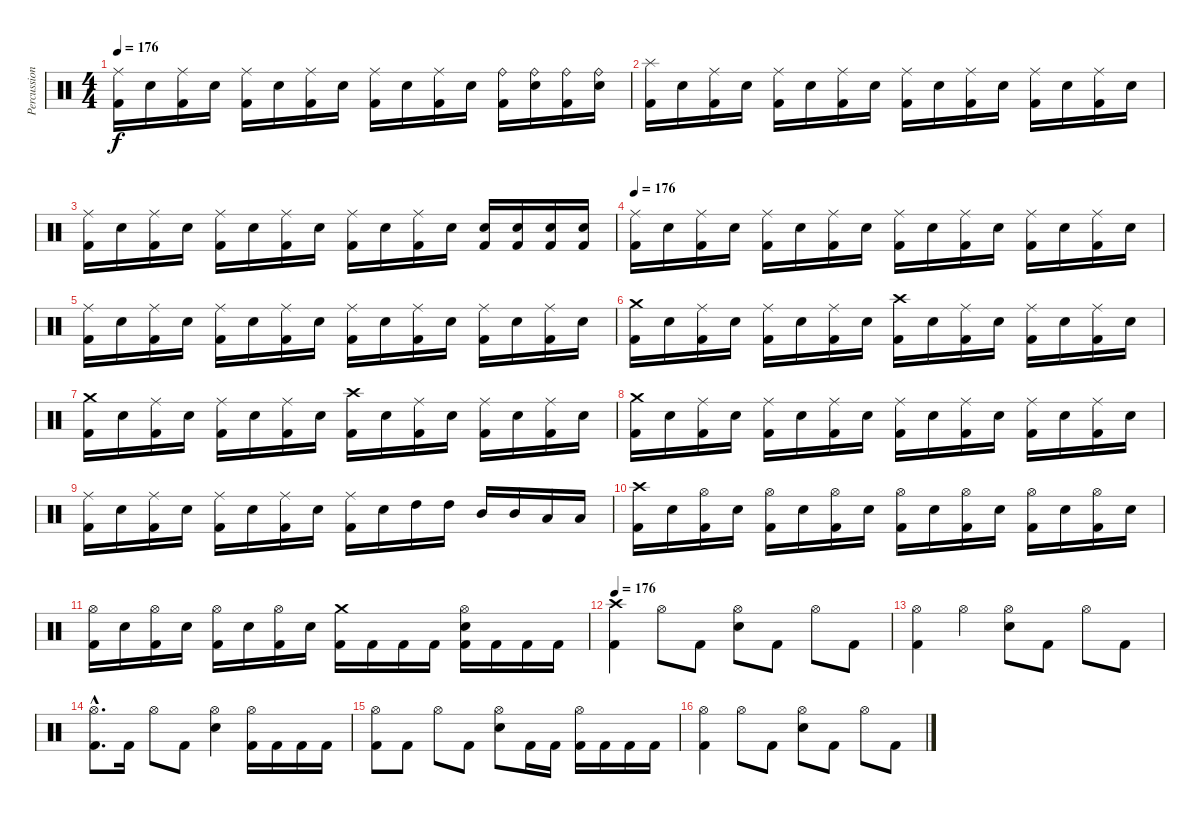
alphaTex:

\track ("Percussion" "Percussion") {instrument percussion}
\staff {score}
\articulation defaults
\ts (4 4)
\tempo 176
\clef neutral
\ks c
("Kick (hit) 2" "Ride (middle)").16{dy f} "Electric Snare (hit)".16 ("Kick (hit) 2" "Ride (middle)").16 "Electric Snare (hit)".16 ("Kick (hit) 2" "Ride (middle)").16 "Electric Snare (hit)".16 ("Kick (hit) 2" "Ride (middle)").16 "Electric Snare (hit)".16 ("Kick (hit) 2" "Ride (middle)").16 "Electric Snare (hit)".16 ("Kick (hit) 2" "Ride (middle)").16 "Electric Snare (hit)".16 ("Kick (hit) 2" "Ride (bell)").16 ("Electric Snare (hit)" "Ride (bell)").16 ("Kick (hit) 2" "Ride (bell)").16 ("Electric Snare (hit)" "Ride (bell)").16 |
("Kick (hit) 2" "Splash (hit)").16 "Electric Snare (hit)".16 ("Kick (hit) 2" "Ride (middle)").16 "Electric Snare (hit)".16 ("Kick (hit) 2" "Ride (middle)").16 "Electric Snare (hit)".16 ("Kick (hit) 2" "Ride (middle)").16 "Electric Snare (hit)".16 ("Kick (hit) 2" "Ride (middle)").16 "Electric Snare (hit)".16 ("Kick (hit) 2" "Ride (middle)").16 "Electric Snare (hit)".16 ("Kick (hit) 2" "Ride (middle)").16 "Electric Snare (hit)".16 ("Kick (hit) 2" "Ride (middle)").16 "Electric Snare (hit)".16 |
("Kick (hit) 2" "Ride (middle)").16 "Electric Snare (hit)".16 ("Kick (hit) 2" "Ride (middle)").16 "Electric Snare (hit)".16 ("Kick (hit) 2" "Ride (middle)").16 "Electric Snare (hit)".16 ("Kick (hit) 2" "Ride (middle)").16 "Electric Snare (hit)".16 ("Kick (hit) 2" "Ride (middle)").16 "Electric Snare (hit)".16 ("Kick (hit) 2" "Ride (middle)").16 "Electric Snare (hit)".16 ("Kick (hit) 2" "Electric Snare (hit)").16 ("Kick (hit) 2" "Electric Snare (hit)").16 ("Kick (hit) 2" "Electric Snare (hit)").16 ("Kick (hit) 2" "Electric Snare (hit)").16 |
\tempo 176
("Kick (hit) 2" "Ride (middle)").16 "Electric Snare (hit)".16 ("Kick (hit) 2" "Ride (middle)").16 "Electric Snare (hit)".16 ("Kick (hit) 2" "Ride (middle)").16 "Electric Snare (hit)".16 ("Kick (hit) 2" "Ride (middle)").16 "Electric Snare (hit)".16 ("Kick (hit) 2" "Ride (middle)").16 "Electric Snare (hit)".16 ("Kick (hit) 2" "Ride (middle)").16 "Electric Snare (hit)".16 ("Kick (hit) 2" "Ride (middle)").16 "Electric Snare (hit)".16 ("Kick (hit) 2" "Ride (middle)").16 "Electric Snare (hit)".16 |
("Kick (hit) 2" "Ride (middle)").16 "Electric Snare (hit)".16 ("Kick (hit) 2" "Ride (middle)").16 "Electric Snare (hit)".16 ("Kick (hit) 2" "Ride (middle)").16 "Electric Snare (hit)".16 ("Kick (hit) 2" "Ride (middle)").16 "Electric Snare (hit)".16 ("Kick (hit) 2" "Ride (middle)").16 "Electric Snare (hit)".16 ("Kick (hit) 2" "Ride (middle)").16 "Electric Snare (hit)".16 ("Kick (hit) 2" "Ride (middle)").16 "Electric Snare (hit)".16 ("Kick (hit) 2" "Ride (middle)").16 "Electric Snare (hit)".16 |
("Kick (hit) 2" "Crash medium (hit)").16 "Electric Snare (hit)".16 ("Kick (hit) 2" "Ride (middle)").16 "Electric Snare (hit)".16 ("Kick (hit) 2" "Ride (middle)").16 "Electric Snare (hit)".16 ("Kick (hit) 2" "Ride (middle)").16 "Electric Snare (hit)".16 ("Kick (hit) 2" "Crash high (hit)").16 "Electric Snare (hit)".16 ("Kick (hit) 2" "Ride (middle)").16 "Electric Snare (hit)".16 ("Kick (hit) 2" "Ride (middle)").16 "Electric Snare (hit)".16 ("Kick (hit) 2" "Ride (middle)").16 "Electric Snare (hit)".16 |
("Kick (hit) 2" "Crash medium (hit)").16 "Electric Snare (hit)".16 ("Kick (hit) 2" "Ride (middle)").16 "Electric Snare (hit)".16 ("Kick (hit) 2" "Ride (middle)").16 "Electric Snare (hit)".16 ("Kick (hit) 2" "Ride (middle)").16 "Electric Snare (hit)".16 ("Kick (hit) 2" "Crash high (hit)").16 "Electric Snare (hit)".16 ("Kick (hit) 2" "Ride (middle)").16 "Electric Snare (hit)".16 ("Kick (hit) 2" "Ride (middle)").16 "Electric Snare (hit)".16 ("Kick (hit) 2" "Ride (middle)").16 "Electric Snare (hit)".16 |
("Kick (hit) 2" "Crash medium (hit)").16 "Electric Snare (hit)".16 ("Kick (hit) 2" "Ride (middle)").16 "Electric Snare (hit)".16 ("Kick (hit) 2" "Ride (middle)").16 "Electric Snare (hit)".16 ("Kick (hit) 2" "Ride (middle)").16 "Electric Snare (hit)".16 ("Kick (hit) 2" "Ride (middle)").16 "Electric Snare (hit)".16 ("Kick (hit) 2" "Ride (middle)").16 "Electric Snare (hit)".16 ("Kick (hit) 2" "Ride (middle)").16 "Electric Snare (hit)".16 ("Kick (hit) 2" "Ride (middle)").16 "Electric Snare (hit)".16 |
("Kick (hit) 2" "Ride (middle)").16 "Electric Snare (hit)".16 ("Kick (hit) 2" "Ride (middle)").16 "Electric Snare (hit)".16 ("Kick (hit) 2" "Ride (middle)").16 "Electric Snare (hit)".16 ("Kick (hit) 2" "Ride (middle)").16 "Electric Snare (hit)".16 ("Kick (hit) 2" "Ride (middle)").16 "Electric Snare (hit)".16 "High Tom (hit)".16 "High Tom (hit)".16 "Mid Tom (hit)".16 "Mid Tom (hit)".16 "Low Tom (hit)".16 "Low Tom (hit)".16 |
("Kick (hit) 2" "Crash high (hit)").16 "Electric Snare (hit)".16 ("Kick (hit) 2" "Hi-Hat (open)").16 "Electric Snare (hit)".16 ("Kick (hit) 2" "Hi-Hat (open)").16 "Electric Snare (hit)".16 ("Kick (hit) 2" "Hi-Hat (open)").16 "Electric Snare (hit)".16 ("Kick (hit) 2" "Hi-Hat (open)").16 "Electric Snare (hit)".16 ("Kick (hit) 2" "Hi-Hat (open)").16 "Electric Snare (hit)".16 ("Kick (hit) 2" "Hi-Hat (open)").16 "Electric Snare (hit)".16 ("Kick (hit) 2" "Hi-Hat (open)").16 "Electric Snare (hit)".16 |
("Kick (hit) 2" "Hi-Hat (open)").16 "Electric Snare (hit)".16 ("Kick (hit) 2" "Hi-Hat (open)").16 "Electric Snare (hit)".16 ("Kick (hit) 2" "Hi-Hat (open)").16 "Electric Snare (hit)".16 ("Kick (hit) 2" "Hi-Hat (open)").16 "Electric Snare (hit)".16 ("Kick (hit) 2" "Crash medium (hit)").16 "Kick (hit) 2".16 "Kick (hit) 2".16 "Kick (hit) 2".16 ("Kick (hit) 2" "Electric Snare (hit)" "Hi-Hat (open)").16 "Kick (hit) 2".16 "Kick (hit) 2".16 "Kick (hit) 2".16 |
\tempo 176
("Kick (hit) 2" "Crash high (hit)").4 "Hi-Hat (open)".8 "Kick (hit) 2".8 ("Electric Snare (hit)" "Hi-Hat (open)").8 "Kick (hit) 2".8 "Hi-Hat (open)".8 "Kick (hit) 2".8 |
("Kick (hit) 2" "Hi-Hat (open)").4 "Hi-Hat (open)".4 ("Electric Snare (hit)" "Hi-Hat (open)").8 "Kick (hit) 2".8 "Hi-Hat (open)".8 "Kick (hit) 2".8 |
("Kick (hit) 2"{hac} "Hi-Hat (open)"{hac}).8{d} "Kick (hit) 2".16 "Hi-Hat (open)".8 "Kick (hit) 2".8 ("Electric Snare (hit)" "Hi-Hat (open)").4 ("Kick (hit) 2" "Hi-Hat (open)").16 "Kick (hit) 2".16 "Kick (hit) 2".16 "Kick (hit) 2".16 |
("Kick (hit) 2" "Hi-Hat (open)").8 "Kick (hit) 2".8 "Hi-Hat (open)".8 "Kick (hit) 2".8 ("Electric Snare (hit)" "Hi-Hat (open)").8 "Kick (hit) 2".16 "Kick (hit) 2".16 ("Kick (hit) 2" "Hi-Hat (open)").16 "Kick (hit) 2".16 "Kick (hit) 2".16 "Kick (hit) 2".16 |
("Kick (hit) 2" "Hi-Hat (open)").4 "Hi-Hat (open)".8 "Kick (hit) 2".8 ("Electric Snare (hit)" "Hi-Hat (open)").8 "Kick (hit) 2".8 "Hi-Hat (open)".8 "Kick (hit) 2".8
